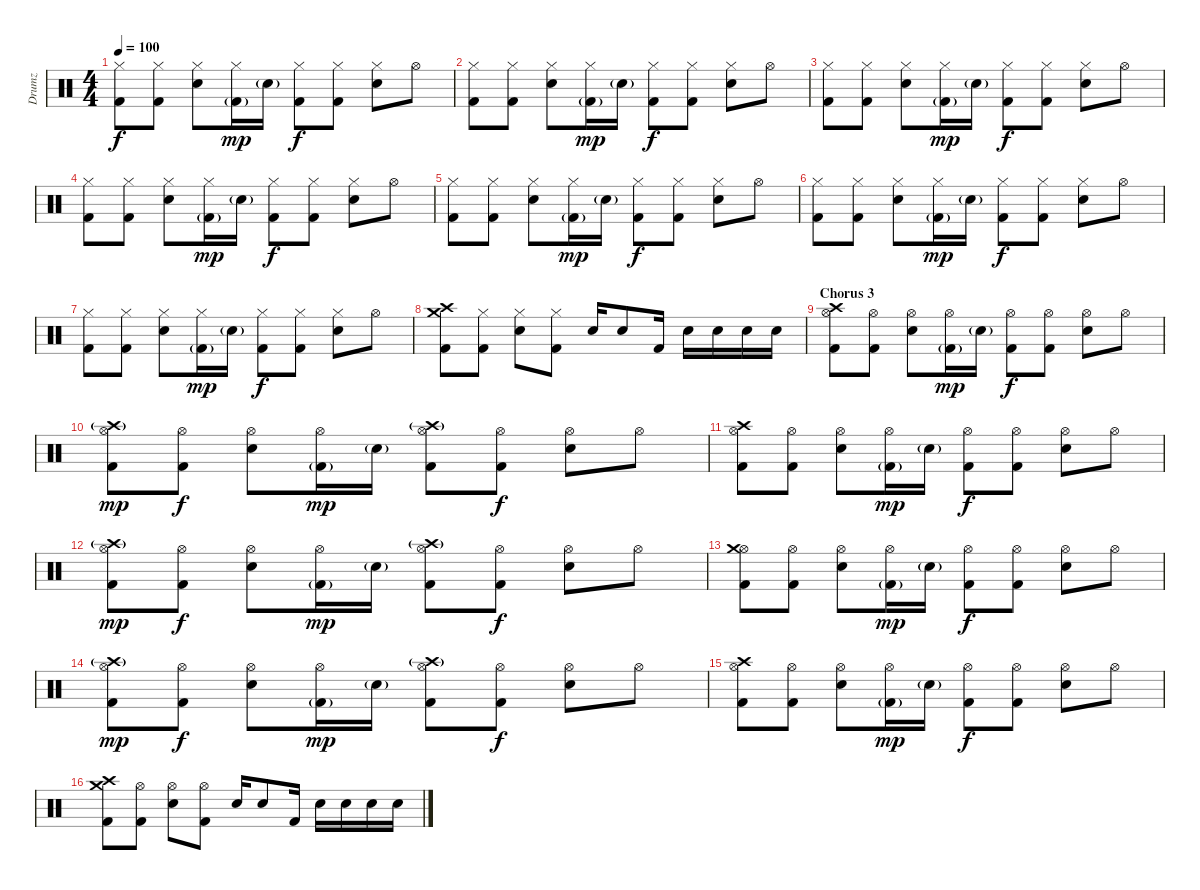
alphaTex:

\track ("Drumz" "Drumz") {instrument percussion}
\staff {score}
\articulation defaults
\ts (4 4)
\tempo 100
\clef neutral
\ks c
("Hi-Hat (closed)" "Kick (hit) 2").8{dy f} ("Hi-Hat (closed)" "Kick (hit) 2").8 ("Hi-Hat (closed)" "Electric Snare (hit)").8 ("Hi-Hat (closed)" "Kick (hit) 2"{g}).16{dy mp} "Electric Snare (hit)"{g}.16 ("Hi-Hat (closed)" "Kick (hit) 2").8{dy f} ("Hi-Hat (closed)" "Kick (hit) 2").8 ("Hi-Hat (closed)" "Electric Snare (hit)").8 "Hi-Hat (open)".8 |
("Hi-Hat (closed)" "Kick (hit) 2").8 ("Hi-Hat (closed)" "Kick (hit) 2").8 ("Hi-Hat (closed)" "Electric Snare (hit)").8 ("Hi-Hat (closed)" "Kick (hit) 2"{g}).16{dy mp} "Electric Snare (hit)"{g}.16 ("Hi-Hat (closed)" "Kick (hit) 2").8{dy f} ("Hi-Hat (closed)" "Kick (hit) 2").8 ("Hi-Hat (closed)" "Electric Snare (hit)").8 "Hi-Hat (open)".8 |
("Hi-Hat (closed)" "Kick (hit) 2").8 ("Hi-Hat (closed)" "Kick (hit) 2").8 ("Hi-Hat (closed)" "Electric Snare (hit)").8 ("Hi-Hat (closed)" "Kick (hit) 2"{g}).16{dy mp} "Electric Snare (hit)"{g}.16 ("Hi-Hat (closed)" "Kick (hit) 2").8{dy f} ("Hi-Hat (closed)" "Kick (hit) 2").8 ("Hi-Hat (closed)" "Electric Snare (hit)").8 "Hi-Hat (open)".8 |
("Hi-Hat (closed)" "Kick (hit) 2").8 ("Hi-Hat (closed)" "Kick (hit) 2").8 ("Hi-Hat (closed)" "Electric Snare (hit)").8 ("Hi-Hat (closed)" "Kick (hit) 2"{g}).16{dy mp} "Electric Snare (hit)"{g}.16 ("Hi-Hat (closed)" "Kick (hit) 2").8{dy f} ("Hi-Hat (closed)" "Kick (hit) 2").8 ("Hi-Hat (closed)" "Electric Snare (hit)").8 "Hi-Hat (open)".8 |
("Hi-Hat (closed)" "Kick (hit) 2").8 ("Hi-Hat (closed)" "Kick (hit) 2").8 ("Hi-Hat (closed)" "Electric Snare (hit)").8 ("Hi-Hat (closed)" "Kick (hit) 2"{g}).16{dy mp} "Electric Snare (hit)"{g}.16 ("Hi-Hat (closed)" "Kick (hit) 2").8{dy f} ("Hi-Hat (closed)" "Kick (hit) 2").8 ("Hi-Hat (closed)" "Electric Snare (hit)").8 "Hi-Hat (open)".8 |
("Hi-Hat (closed)" "Kick (hit) 2").8 ("Hi-Hat (closed)" "Kick (hit) 2").8 ("Hi-Hat (closed)" "Electric Snare (hit)").8 ("Hi-Hat (closed)" "Kick (hit) 2"{g}).16{dy mp} "Electric Snare (hit)"{g}.16 ("Hi-Hat (closed)" "Kick (hit) 2").8{dy f} ("Hi-Hat (closed)" "Kick (hit) 2").8 ("Hi-Hat (closed)" "Electric Snare (hit)").8 "Hi-Hat (open)".8 |
("Hi-Hat (closed)" "Kick (hit) 2").8 ("Hi-Hat (closed)" "Kick (hit) 2").8 ("Hi-Hat (closed)" "Electric Snare (hit)").8 ("Hi-Hat (closed)" "Kick (hit) 2"{g}).16{dy mp} "Electric Snare (hit)"{g}.16 ("Hi-Hat (closed)" "Kick (hit) 2").8{dy f} ("Hi-Hat (closed)" "Kick (hit) 2").8 ("Hi-Hat (closed)" "Electric Snare (hit)").8 "Hi-Hat (open)".8 |
("Crash medium (hit)" "Crash high (hit)" "Kick (hit) 2").8 ("Hi-Hat (closed)" "Kick (hit) 2").8 ("Hi-Hat (closed)" "Electric Snare (hit)").8 ("Hi-Hat (closed)" "Kick (hit) 2").8 "Electric Snare (hit)".16 "Electric Snare (hit)".8 "Kick (hit) 2".16 "Electric Snare (hit)".16 "Electric Snare (hit)".16 "Electric Snare (hit)".16 "Electric Snare (hit)".16 |
\section ("" "Chorus 3")
("Hi-Hat (open)" "Crash high (hit)" "Kick (hit) 2").8 ("Hi-Hat (open)" "Kick (hit) 2").8 ("Hi-Hat (open)" "Electric Snare (hit)").8 ("Hi-Hat (open)" "Kick (hit) 2"{g}).16{dy mp} "Electric Snare (hit)"{g}.16 ("Hi-Hat (open)" "Kick (hit) 2").8{dy f} ("Hi-Hat (open)" "Kick (hit) 2").8 ("Hi-Hat (open)" "Electric Snare (hit)").8 "Hi-Hat (open)".8 |
("Hi-Hat (open)" "Crash high (hit)"{g} "Kick (hit) 2").8{dy mp} ("Hi-Hat (open)" "Kick (hit) 2").8{dy f} ("Hi-Hat (open)" "Electric Snare (hit)").8 ("Hi-Hat (open)" "Kick (hit) 2"{g}).16{dy mp} "Electric Snare (hit)"{g}.16 ("Hi-Hat (open)" "Crash high (hit)"{g} "Kick (hit) 2").8 ("Hi-Hat (open)" "Kick (hit) 2").8{dy f} ("Hi-Hat (open)" "Electric Snare (hit)").8 "Hi-Hat (open)".8 |
("Hi-Hat (open)" "Crash high (hit)" "Kick (hit) 2").8 ("Hi-Hat (open)" "Kick (hit) 2").8 ("Hi-Hat (open)" "Electric Snare (hit)").8 ("Hi-Hat (open)" "Kick (hit) 2"{g}).16{dy mp} "Electric Snare (hit)"{g}.16 ("Hi-Hat (open)" "Kick (hit) 2").8{dy f} ("Hi-Hat (open)" "Kick (hit) 2").8 ("Hi-Hat (open)" "Electric Snare (hit)").8 "Hi-Hat (open)".8 |
("Hi-Hat (open)" "Crash high (hit)"{g} "Kick (hit) 2").8{dy mp} ("Hi-Hat (open)" "Kick (hit) 2").8{dy f} ("Hi-Hat (open)" "Electric Snare (hit)").8 ("Hi-Hat (open)" "Kick (hit) 2"{g}).16{dy mp} "Electric Snare (hit)"{g}.16 ("Hi-Hat (open)" "Crash high (hit)"{g} "Kick (hit) 2").8 ("Hi-Hat (open)" "Kick (hit) 2").8{dy f} ("Hi-Hat (open)" "Electric Snare (hit)").8 "Hi-Hat (open)".8 |
("Hi-Hat (open)" "Crash medium (hit)" "Kick (hit) 2").8 ("Hi-Hat (open)" "Kick (hit) 2").8 ("Hi-Hat (open)" "Electric Snare (hit)").8 ("Hi-Hat (open)" "Kick (hit) 2"{g}).16{dy mp} "Electric Snare (hit)"{g}.16 ("Hi-Hat (open)" "Kick (hit) 2").8{dy f} ("Hi-Hat (open)" "Kick (hit) 2").8 ("Hi-Hat (open)" "Electric Snare (hit)").8 "Hi-Hat (open)".8 |
("Hi-Hat (open)" "Crash high (hit)"{g} "Kick (hit) 2").8{dy mp} ("Hi-Hat (open)" "Kick (hit) 2").8{dy f} ("Hi-Hat (open)" "Electric Snare (hit)").8 ("Hi-Hat (open)" "Kick (hit) 2"{g}).16{dy mp} "Electric Snare (hit)"{g}.16 ("Hi-Hat (open)" "Crash high (hit)"{g} "Kick (hit) 2").8 ("Hi-Hat (open)" "Kick (hit) 2").8{dy f} ("Hi-Hat (open)" "Electric Snare (hit)").8 "Hi-Hat (open)".8 |
("Hi-Hat (open)" "Crash high (hit)" "Kick (hit) 2").8 ("Hi-Hat (open)" "Kick (hit) 2").8 ("Hi-Hat (open)" "Electric Snare (hit)").8 ("Hi-Hat (open)" "Kick (hit) 2"{g}).16{dy mp} "Electric Snare (hit)"{g}.16 ("Hi-Hat (open)" "Kick (hit) 2").8{dy f} ("Hi-Hat (open)" "Kick (hit) 2").8 ("Hi-Hat (open)" "Electric Snare (hit)").8 "Hi-Hat (open)".8 |
("Crash high (hit)" "Crash medium (hit)" "Kick (hit) 2").8 ("Hi-Hat (open)" "Kick (hit) 2").8 ("Hi-Hat (open)" "Electric Snare (hit)").8 ("Hi-Hat (open)" "Kick (hit) 2").8 "Electric Snare (hit)".16 "Electric Snare (hit)".8 "Kick (hit) 2".16 "Electric Snare (hit)".16 "Electric Snare (hit)".16 "Electric Snare (hit)".16 "Electric Snare (hit)".16
